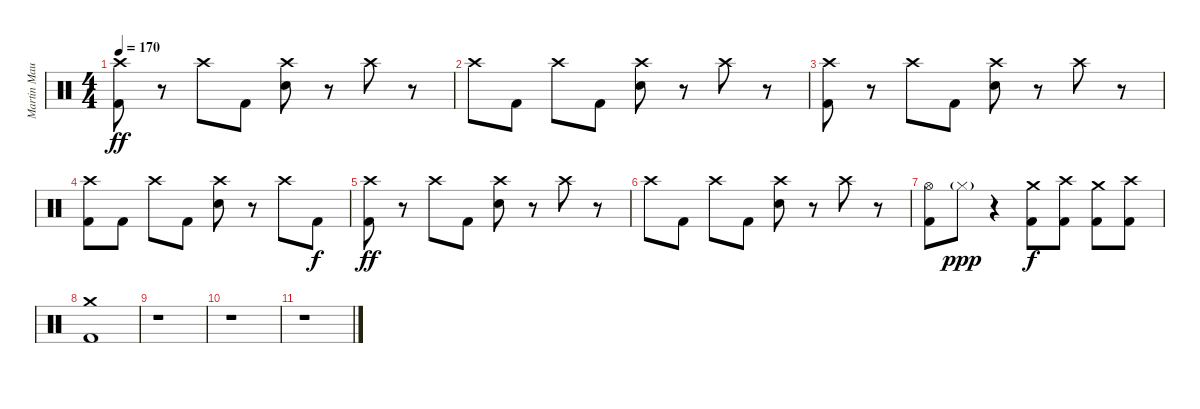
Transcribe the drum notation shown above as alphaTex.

\track ("Martin Maurais " "Martin Mau") {instrument percussion}
\staff {score}
\articulation defaults
\ts (4 4)
\tempo 170
\clef neutral
\ks c
("Crash high (hit)" "Kick (hit) 2").8{dy ff} r.8 "Crash high (hit)".8 "Kick (hit) 2".8 ("Crash high (hit)" "Snare (hit) 2").8 r.8 "Crash high (hit)".8 r.8 |
"Crash high (hit)".8 "Kick (hit) 2".8 "Crash high (hit)".8 "Kick (hit) 2".8 ("Crash high (hit)" "Snare (hit) 2").8 r.8 "Crash high (hit)".8 r.8 |
("Crash high (hit)" "Kick (hit) 2").8 r.8 "Crash high (hit)".8 "Kick (hit) 2".8 ("Crash high (hit)" "Snare (hit) 2").8 r.8 "Crash high (hit)".8 r.8 |
("Crash high (hit)" "Kick (hit) 2").8 "Kick (hit) 2".8 "Crash high (hit)".8 "Kick (hit) 2".8 ("Crash high (hit)" "Snare (hit) 2").8 r.8 "Crash high (hit)".8 "Kick (hit) 2".8{dy f} |
("Crash high (hit)" "Kick (hit) 2").8{dy ff} r.8 "Crash high (hit)".8 "Kick (hit) 2".8 ("Crash high (hit)" "Snare (hit) 2").8 r.8 "Crash high (hit)".8 r.8 |
"Crash high (hit)".8 "Kick (hit) 2".8 "Crash high (hit)".8 "Kick (hit) 2".8 ("Crash high (hit)" "Snare (hit) 2").8 r.8 "Crash high (hit)".8 r.8 |
("Hi-Hat (open)" "Kick (hit) 2").8 "Hi-Hat (closed)"{g}.8{dy ppp} r.4 ("Crash medium (hit)" "Kick (hit) 2").8{dy f} ("Crash high (hit)" "Kick (hit) 2").8 ("Crash medium (hit)" "Kick (hit) 2").8 ("Crash high (hit)" "Kick (hit) 2").8 |
("Crash medium (hit)" "Kick (hit) 2").1 |
r.1 |
r.1 |
r.1
